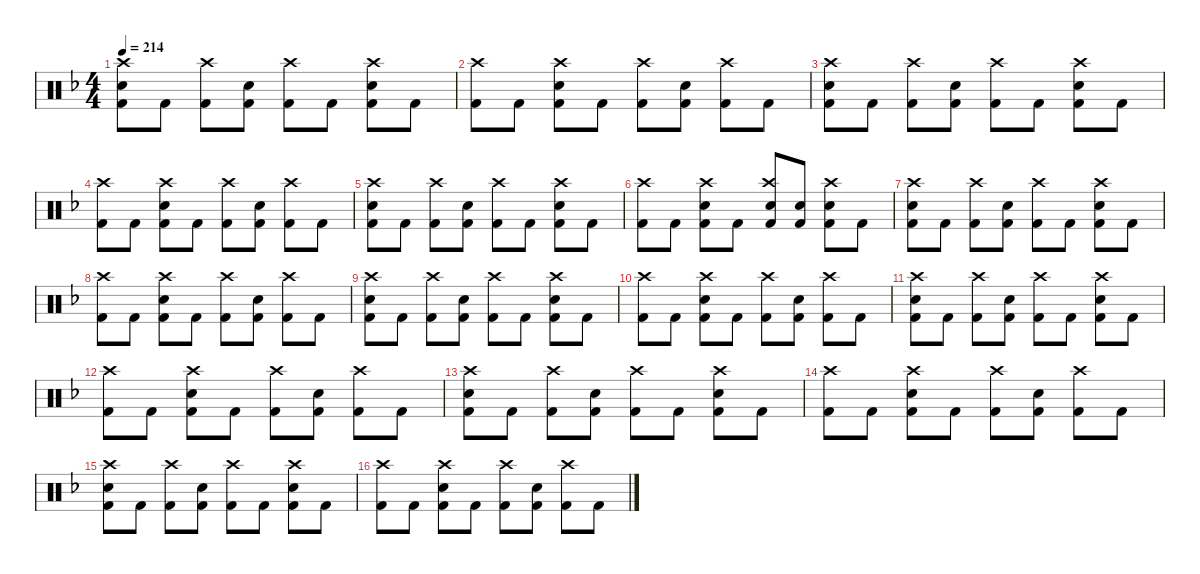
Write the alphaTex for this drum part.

\hideDynamics
\bracketExtendMode nobrackets
\singleTrackTrackNamePolicy hidden
\multiTrackTrackNamePolicy hidden
\firstSystemTrackNameMode fullname
\firstSystemTrackNameOrientation horizontal
\otherSystemsTrackNameOrientation horizontal
\track ("Drumkit" "Drums") {defaultSystemsLayout 4 instrument percussion}
\staff {score}
\articulation defaults
\ts (4 4)
\tempo 214
\clef neutral
\ks dminor
("Crash high (hit)"{acc forcenatural} "Snare (hit) 2"{acc forcenatural} "Kick (hit) 2"{acc forcenatural}).8{dy mf beam Down} "Kick (hit) 2"{acc forcenatural}.8{dy f beam Down} ("Crash high (hit)"{acc forcenatural} "Kick (hit) 2"{acc forcenatural}).8{dy mf beam Down} ("Snare (hit) 2"{acc forcenatural} "Kick (hit) 2"{acc forcenatural}).8{dy f beam Down} ("Crash high (hit)"{acc forcenatural} "Kick (hit) 2"{acc forcenatural}).8{dy mf beam Down} "Kick (hit) 2"{acc forcenatural}.8{dy f beam Down} ("Crash high (hit)"{acc forcenatural} "Snare (hit) 2"{acc forcenatural} "Kick (hit) 2"{acc forcenatural}).8{dy mf beam Down} "Kick (hit) 2"{acc forcenatural}.8{dy f beam Down} |
("Crash high (hit)"{acc forcenatural} "Kick (hit) 2"{acc forcenatural}).8{dy mf beam Down} "Kick (hit) 2"{acc forcenatural}.8{dy f beam Down} ("Crash high (hit)"{acc forcenatural} "Snare (hit) 2"{acc forcenatural} "Kick (hit) 2"{acc forcenatural}).8{dy mf beam Down} "Kick (hit) 2"{acc forcenatural}.8{dy f beam Down} ("Crash high (hit)"{acc forcenatural} "Kick (hit) 2"{acc forcenatural}).8{dy mf beam Down} ("Snare (hit) 2"{acc forcenatural} "Kick (hit) 2"{acc forcenatural}).8{dy f beam Down} ("Crash high (hit)"{acc forcenatural} "Kick (hit) 2"{acc forcenatural}).8{dy mf beam Down} "Kick (hit) 2"{acc forcenatural}.8{dy f beam Down} |
("Crash high (hit)"{acc forcenatural} "Snare (hit) 2"{acc forcenatural} "Kick (hit) 2"{acc forcenatural}).8{dy mf beam Down} "Kick (hit) 2"{acc forcenatural}.8{dy f beam Down} ("Crash high (hit)"{acc forcenatural} "Kick (hit) 2"{acc forcenatural}).8{dy mf beam Down} ("Snare (hit) 2"{acc forcenatural} "Kick (hit) 2"{acc forcenatural}).8{dy f beam Down} ("Crash high (hit)"{acc forcenatural} "Kick (hit) 2"{acc forcenatural}).8{dy mf beam Down} "Kick (hit) 2"{acc forcenatural}.8{dy f beam Down} ("Crash high (hit)"{acc forcenatural} "Snare (hit) 2"{acc forcenatural} "Kick (hit) 2"{acc forcenatural}).8{dy mf beam Down} "Kick (hit) 2"{acc forcenatural}.8{dy f beam Down} |
("Crash high (hit)"{acc forcenatural} "Kick (hit) 2"{acc forcenatural}).8{dy mf beam Down} "Kick (hit) 2"{acc forcenatural}.8{dy f beam Down} ("Crash high (hit)"{acc forcenatural} "Snare (hit) 2"{acc forcenatural} "Kick (hit) 2"{acc forcenatural}).8{dy mf beam Down} "Kick (hit) 2"{acc forcenatural}.8{dy f beam Down} ("Crash high (hit)"{acc forcenatural} "Kick (hit) 2"{acc forcenatural}).8{dy mf beam Down} ("Snare (hit) 2"{acc forcenatural} "Kick (hit) 2"{acc forcenatural}).8{dy f beam Down} ("Crash high (hit)"{acc forcenatural} "Kick (hit) 2"{acc forcenatural}).8{dy mf beam Down} "Kick (hit) 2"{acc forcenatural}.8{dy f beam Down} |
("Crash high (hit)"{acc forcenatural} "Snare (hit) 2"{acc forcenatural} "Kick (hit) 2"{acc forcenatural}).8{dy mf beam Down} "Kick (hit) 2"{acc forcenatural}.8{dy f beam Down} ("Crash high (hit)"{acc forcenatural} "Kick (hit) 2"{acc forcenatural}).8{dy mf beam Down} ("Snare (hit) 2"{acc forcenatural} "Kick (hit) 2"{acc forcenatural}).8{dy f beam Down} ("Crash high (hit)"{acc forcenatural} "Kick (hit) 2"{acc forcenatural}).8{dy mf beam Down} "Kick (hit) 2"{acc forcenatural}.8{dy f beam Down} ("Crash high (hit)"{acc forcenatural} "Snare (hit) 2"{acc forcenatural} "Kick (hit) 2"{acc forcenatural}).8{dy mf beam Down} "Kick (hit) 2"{acc forcenatural}.8{dy f beam Down} |
("Crash high (hit)"{acc forcenatural} "Kick (hit) 2"{acc forcenatural}).8{dy mf beam Down} "Kick (hit) 2"{acc forcenatural}.8{dy f beam Down} ("Crash high (hit)"{acc forcenatural} "Snare (hit) 2"{acc forcenatural} "Kick (hit) 2"{acc forcenatural}).8{dy mf beam Down} "Kick (hit) 2"{acc forcenatural}.8{dy f beam Down} ("Crash high (hit)"{acc forcenatural} "Snare (hit) 2"{acc forcenatural} "Kick (hit) 2"{acc forcenatural}).8{dy mf beam Up} ("Snare (hit) 2"{acc forcenatural} "Kick (hit) 2"{acc forcenatural}).8{dy f beam Up} ("Crash high (hit)"{acc forcenatural} "Snare (hit) 2"{acc forcenatural} "Kick (hit) 2"{acc forcenatural}).8{dy mf beam Down} "Kick (hit) 2"{acc forcenatural}.8{dy f beam Down} |
("Crash high (hit)"{acc forcenatural} "Snare (hit) 2"{acc forcenatural} "Kick (hit) 2"{acc forcenatural}).8{dy mf beam Down} "Kick (hit) 2"{acc forcenatural}.8{dy f beam Down} ("Crash high (hit)"{acc forcenatural} "Kick (hit) 2"{acc forcenatural}).8{dy mf beam Down} ("Snare (hit) 2"{acc forcenatural} "Kick (hit) 2"{acc forcenatural}).8{dy f beam Down} ("Crash high (hit)"{acc forcenatural} "Kick (hit) 2"{acc forcenatural}).8{dy mf beam Down} "Kick (hit) 2"{acc forcenatural}.8{dy f beam Down} ("Crash high (hit)"{acc forcenatural} "Snare (hit) 2"{acc forcenatural} "Kick (hit) 2"{acc forcenatural}).8{dy mf beam Down} "Kick (hit) 2"{acc forcenatural}.8{dy f beam Down} |
("Crash high (hit)"{acc forcenatural} "Kick (hit) 2"{acc forcenatural}).8{dy mf beam Down} "Kick (hit) 2"{acc forcenatural}.8{dy f beam Down} ("Crash high (hit)"{acc forcenatural} "Snare (hit) 2"{acc forcenatural} "Kick (hit) 2"{acc forcenatural}).8{dy mf beam Down} "Kick (hit) 2"{acc forcenatural}.8{dy f beam Down} ("Crash high (hit)"{acc forcenatural} "Kick (hit) 2"{acc forcenatural}).8{dy mf beam Down} ("Snare (hit) 2"{acc forcenatural} "Kick (hit) 2"{acc forcenatural}).8{dy f beam Down} ("Crash high (hit)"{acc forcenatural} "Kick (hit) 2"{acc forcenatural}).8{dy mf beam Down} "Kick (hit) 2"{acc forcenatural}.8{dy f beam Down} |
("Crash high (hit)"{acc forcenatural} "Snare (hit) 2"{acc forcenatural} "Kick (hit) 2"{acc forcenatural}).8{dy mf beam Down} "Kick (hit) 2"{acc forcenatural}.8{dy f beam Down} ("Crash high (hit)"{acc forcenatural} "Kick (hit) 2"{acc forcenatural}).8{dy mf beam Down} ("Snare (hit) 2"{acc forcenatural} "Kick (hit) 2"{acc forcenatural}).8{dy f beam Down} ("Crash high (hit)"{acc forcenatural} "Kick (hit) 2"{acc forcenatural}).8{dy mf beam Down} "Kick (hit) 2"{acc forcenatural}.8{dy f beam Down} ("Crash high (hit)"{acc forcenatural} "Snare (hit) 2"{acc forcenatural} "Kick (hit) 2"{acc forcenatural}).8{dy mf beam Down} "Kick (hit) 2"{acc forcenatural}.8{dy f beam Down} |
("Crash high (hit)"{acc forcenatural} "Kick (hit) 2"{acc forcenatural}).8{dy mf beam Down} "Kick (hit) 2"{acc forcenatural}.8{dy f beam Down} ("Crash high (hit)"{acc forcenatural} "Snare (hit) 2"{acc forcenatural} "Kick (hit) 2"{acc forcenatural}).8{dy mf beam Down} "Kick (hit) 2"{acc forcenatural}.8{dy f beam Down} ("Crash high (hit)"{acc forcenatural} "Kick (hit) 2"{acc forcenatural}).8{dy mf beam Down} ("Snare (hit) 2"{acc forcenatural} "Kick (hit) 2"{acc forcenatural}).8{dy f beam Down} ("Crash high (hit)"{acc forcenatural} "Kick (hit) 2"{acc forcenatural}).8{dy mf beam Down} "Kick (hit) 2"{acc forcenatural}.8{dy f beam Down} |
("Crash high (hit)"{acc forcenatural} "Snare (hit) 2"{acc forcenatural} "Kick (hit) 2"{acc forcenatural}).8{dy mf beam Down} "Kick (hit) 2"{acc forcenatural}.8{dy f beam Down} ("Crash high (hit)"{acc forcenatural} "Kick (hit) 2"{acc forcenatural}).8{dy mf beam Down} ("Snare (hit) 2"{acc forcenatural} "Kick (hit) 2"{acc forcenatural}).8{dy f beam Down} ("Crash high (hit)"{acc forcenatural} "Kick (hit) 2"{acc forcenatural}).8{dy mf beam Down} "Kick (hit) 2"{acc forcenatural}.8{dy f beam Down} ("Crash high (hit)"{acc forcenatural} "Snare (hit) 2"{acc forcenatural} "Kick (hit) 2"{acc forcenatural}).8{dy mf beam Down} "Kick (hit) 2"{acc forcenatural}.8{dy f beam Down} |
("Crash high (hit)"{acc forcenatural} "Kick (hit) 2"{acc forcenatural}).8{dy mf beam Down} "Kick (hit) 2"{acc forcenatural}.8{dy f beam Down} ("Crash high (hit)"{acc forcenatural} "Snare (hit) 2"{acc forcenatural} "Kick (hit) 2"{acc forcenatural}).8{dy mf beam Down} "Kick (hit) 2"{acc forcenatural}.8{dy f beam Down} ("Crash high (hit)"{acc forcenatural} "Kick (hit) 2"{acc forcenatural}).8{dy mf beam Down} ("Snare (hit) 2"{acc forcenatural} "Kick (hit) 2"{acc forcenatural}).8{dy f beam Down} ("Crash high (hit)"{acc forcenatural} "Kick (hit) 2"{acc forcenatural}).8{dy mf beam Down} "Kick (hit) 2"{acc forcenatural}.8{dy f beam Down} |
("Crash high (hit)"{acc forcenatural} "Snare (hit) 2"{acc forcenatural} "Kick (hit) 2"{acc forcenatural}).8{dy mf beam Down} "Kick (hit) 2"{acc forcenatural}.8{dy f beam Down} ("Crash high (hit)"{acc forcenatural} "Kick (hit) 2"{acc forcenatural}).8{dy mf beam Down} ("Snare (hit) 2"{acc forcenatural} "Kick (hit) 2"{acc forcenatural}).8{dy f beam Down} ("Crash high (hit)"{acc forcenatural} "Kick (hit) 2"{acc forcenatural}).8{dy mf beam Down} "Kick (hit) 2"{acc forcenatural}.8{dy f beam Down} ("Crash high (hit)"{acc forcenatural} "Snare (hit) 2"{acc forcenatural} "Kick (hit) 2"{acc forcenatural}).8{dy mf beam Down} "Kick (hit) 2"{acc forcenatural}.8{dy f beam Down} |
("Crash high (hit)"{acc forcenatural} "Kick (hit) 2"{acc forcenatural}).8{dy mf beam Down} "Kick (hit) 2"{acc forcenatural}.8{dy f beam Down} ("Crash high (hit)"{acc forcenatural} "Snare (hit) 2"{acc forcenatural} "Kick (hit) 2"{acc forcenatural}).8{dy mf beam Down} "Kick (hit) 2"{acc forcenatural}.8{dy f beam Down} ("Crash high (hit)"{acc forcenatural} "Kick (hit) 2"{acc forcenatural}).8{dy mf beam Down} ("Snare (hit) 2"{acc forcenatural} "Kick (hit) 2"{acc forcenatural}).8{dy f beam Down} ("Crash high (hit)"{acc forcenatural} "Kick (hit) 2"{acc forcenatural}).8{dy mf beam Down} "Kick (hit) 2"{acc forcenatural}.8{dy f beam Down} |
("Crash high (hit)"{acc forcenatural} "Snare (hit) 2"{acc forcenatural} "Kick (hit) 2"{acc forcenatural}).8{dy mf beam Down} "Kick (hit) 2"{acc forcenatural}.8{dy f beam Down} ("Crash high (hit)"{acc forcenatural} "Kick (hit) 2"{acc forcenatural}).8{dy mf beam Down} ("Snare (hit) 2"{acc forcenatural} "Kick (hit) 2"{acc forcenatural}).8{dy f beam Down} ("Crash high (hit)"{acc forcenatural} "Kick (hit) 2"{acc forcenatural}).8{dy mf beam Down} "Kick (hit) 2"{acc forcenatural}.8{dy f beam Down} ("Crash high (hit)"{acc forcenatural} "Snare (hit) 2"{acc forcenatural} "Kick (hit) 2"{acc forcenatural}).8{dy mf beam Down} "Kick (hit) 2"{acc forcenatural}.8{dy f beam Down} |
("Crash high (hit)"{acc forcenatural} "Kick (hit) 2"{acc forcenatural}).8{dy mf beam Down} "Kick (hit) 2"{acc forcenatural}.8{dy f beam Down} ("Crash high (hit)"{acc forcenatural} "Snare (hit) 2"{acc forcenatural} "Kick (hit) 2"{acc forcenatural}).8{dy mf beam Down} "Kick (hit) 2"{acc forcenatural}.8{dy f beam Down} ("Crash high (hit)"{acc forcenatural} "Kick (hit) 2"{acc forcenatural}).8{dy mf beam Down} ("Snare (hit) 2"{acc forcenatural} "Kick (hit) 2"{acc forcenatural}).8{dy f beam Down} ("Crash high (hit)"{acc forcenatural} "Kick (hit) 2"{acc forcenatural}).8{dy mf beam Down} "Kick (hit) 2"{acc forcenatural}.8{dy f beam Down}
